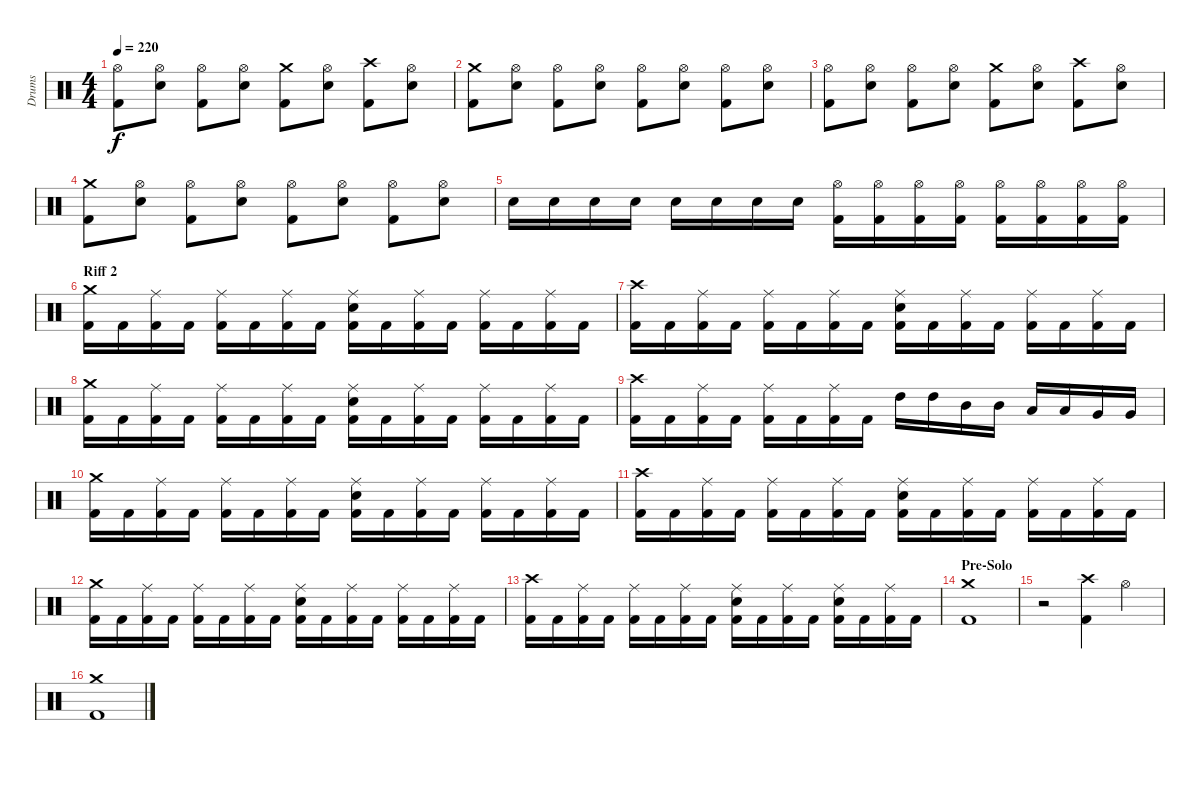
\track ("Drums" "Drums") {instrument percussion}
\staff {score}
\articulation defaults
\ts (4 4)
\tempo 220
\clef neutral
\ks c
("Hi-Hat (open)" "Kick (hit) 2").8{dy f} ("Hi-Hat (open)" "Electric Snare (hit)").8 ("Hi-Hat (open)" "Kick (hit) 2").8 ("Hi-Hat (open)" "Electric Snare (hit)").8 ("Crash medium (hit)" "Kick (hit) 2").8 ("Hi-Hat (open)" "Electric Snare (hit)").8 ("Crash high (hit)" "Kick (hit) 2").8 ("Hi-Hat (open)" "Electric Snare (hit)").8 |
("Crash medium (hit)" "Kick (hit) 2").8 ("Hi-Hat (open)" "Electric Snare (hit)").8 ("Hi-Hat (open)" "Kick (hit) 2").8 ("Hi-Hat (open)" "Electric Snare (hit)").8 ("Hi-Hat (open)" "Kick (hit) 2").8 ("Hi-Hat (open)" "Electric Snare (hit)").8 ("Hi-Hat (open)" "Kick (hit) 2").8 ("Hi-Hat (open)" "Electric Snare (hit)").8 |
("Hi-Hat (open)" "Kick (hit) 2").8 ("Hi-Hat (open)" "Electric Snare (hit)").8 ("Hi-Hat (open)" "Kick (hit) 2").8 ("Hi-Hat (open)" "Electric Snare (hit)").8 ("Crash medium (hit)" "Kick (hit) 2").8 ("Hi-Hat (open)" "Electric Snare (hit)").8 ("Crash high (hit)" "Kick (hit) 2").8 ("Hi-Hat (open)" "Electric Snare (hit)").8 |
("Crash medium (hit)" "Kick (hit) 2").8 ("Hi-Hat (open)" "Electric Snare (hit)").8 ("Hi-Hat (open)" "Kick (hit) 2").8 ("Hi-Hat (open)" "Electric Snare (hit)").8 ("Hi-Hat (open)" "Kick (hit) 2").8 ("Hi-Hat (open)" "Electric Snare (hit)").8 ("Hi-Hat (open)" "Kick (hit) 2").8 ("Hi-Hat (open)" "Electric Snare (hit)").8 |
"Electric Snare (hit)".16 "Electric Snare (hit)".16 "Electric Snare (hit)".16 "Electric Snare (hit)".16 "Electric Snare (hit)".16 "Electric Snare (hit)".16 "Electric Snare (hit)".16 "Electric Snare (hit)".16 ("Hi-Hat (open)" "Kick (hit) 2").16 ("Hi-Hat (open)" "Kick (hit) 2").16 ("Hi-Hat (open)" "Kick (hit) 2").16 ("Hi-Hat (open)" "Kick (hit) 2").16 ("Hi-Hat (open)" "Kick (hit) 2").16 ("Hi-Hat (open)" "Kick (hit) 2").16 ("Hi-Hat (open)" "Kick (hit) 2").16 ("Hi-Hat (open)" "Kick (hit) 2").16 |
\section ("" "Riff 2")
("Crash medium (hit)" "Kick (hit) 2").16 "Kick (hit) 2".16 ("Ride (middle)" "Kick (hit) 2").16 "Kick (hit) 2".16 ("Ride (middle)" "Kick (hit) 2").16 "Kick (hit) 2".16 ("Ride (middle)" "Kick (hit) 2").16 "Kick (hit) 2".16 ("Ride (middle)" "Electric Snare (hit)" "Kick (hit) 2").16 "Kick (hit) 2".16 ("Ride (middle)" "Kick (hit) 2").16 "Kick (hit) 2".16 ("Ride (middle)" "Kick (hit) 2").16 "Kick (hit) 2".16 ("Ride (middle)" "Kick (hit) 2").16 "Kick (hit) 2".16 |
("Crash high (hit)" "Kick (hit) 2").16 "Kick (hit) 2".16 ("Ride (middle)" "Kick (hit) 2").16 "Kick (hit) 2".16 ("Ride (middle)" "Kick (hit) 2").16 "Kick (hit) 2".16 ("Ride (middle)" "Kick (hit) 2").16 "Kick (hit) 2".16 ("Ride (middle)" "Electric Snare (hit)" "Kick (hit) 2").16 "Kick (hit) 2".16 ("Ride (middle)" "Kick (hit) 2").16 "Kick (hit) 2".16 ("Ride (middle)" "Kick (hit) 2").16 "Kick (hit) 2".16 ("Ride (middle)" "Kick (hit) 2").16 "Kick (hit) 2".16 |
("Crash medium (hit)" "Kick (hit) 2").16 "Kick (hit) 2".16 ("Ride (middle)" "Kick (hit) 2").16 "Kick (hit) 2".16 ("Ride (middle)" "Kick (hit) 2").16 "Kick (hit) 2".16 ("Ride (middle)" "Kick (hit) 2").16 "Kick (hit) 2".16 ("Ride (middle)" "Electric Snare (hit)" "Kick (hit) 2").16 "Kick (hit) 2".16 ("Ride (middle)" "Kick (hit) 2").16 "Kick (hit) 2".16 ("Ride (middle)" "Kick (hit) 2").16 "Kick (hit) 2".16 ("Ride (middle)" "Kick (hit) 2").16 "Kick (hit) 2".16 |
("Crash high (hit)" "Kick (hit) 2").16 "Kick (hit) 2".16 ("Ride (middle)" "Kick (hit) 2").16 "Kick (hit) 2".16 ("Ride (middle)" "Kick (hit) 2").16 "Kick (hit) 2".16 ("Ride (middle)" "Kick (hit) 2").16 "Kick (hit) 2".16 "High Tom (hit)".16 "High Tom (hit)".16 "Mid Tom (hit)".16 "Mid Tom (hit)".16 "Low Tom (hit)".16 "Low Tom (hit)".16 "Very Low Tom (hit)".16 "Very Low Tom (hit)".16 |
("Crash medium (hit)" "Kick (hit) 2").16 "Kick (hit) 2".16 ("Ride (middle)" "Kick (hit) 2").16 "Kick (hit) 2".16 ("Ride (middle)" "Kick (hit) 2").16 "Kick (hit) 2".16 ("Ride (middle)" "Kick (hit) 2").16 "Kick (hit) 2".16 ("Ride (middle)" "Electric Snare (hit)" "Kick (hit) 2").16 "Kick (hit) 2".16 ("Ride (middle)" "Kick (hit) 2").16 "Kick (hit) 2".16 ("Ride (middle)" "Kick (hit) 2").16 "Kick (hit) 2".16 ("Ride (middle)" "Kick (hit) 2").16 "Kick (hit) 2".16 |
("Crash high (hit)" "Kick (hit) 2").16 "Kick (hit) 2".16 ("Ride (middle)" "Kick (hit) 2").16 "Kick (hit) 2".16 ("Ride (middle)" "Kick (hit) 2").16 "Kick (hit) 2".16 ("Ride (middle)" "Kick (hit) 2").16 "Kick (hit) 2".16 ("Ride (middle)" "Electric Snare (hit)" "Kick (hit) 2").16 "Kick (hit) 2".16 ("Ride (middle)" "Kick (hit) 2").16 "Kick (hit) 2".16 ("Ride (middle)" "Kick (hit) 2").16 "Kick (hit) 2".16 ("Ride (middle)" "Kick (hit) 2").16 "Kick (hit) 2".16 |
("Crash medium (hit)" "Kick (hit) 2").16 "Kick (hit) 2".16 ("Ride (middle)" "Kick (hit) 2").16 "Kick (hit) 2".16 ("Ride (middle)" "Kick (hit) 2").16 "Kick (hit) 2".16 ("Ride (middle)" "Kick (hit) 2").16 "Kick (hit) 2".16 ("Ride (middle)" "Electric Snare (hit)" "Kick (hit) 2").16 "Kick (hit) 2".16 ("Ride (middle)" "Kick (hit) 2").16 "Kick (hit) 2".16 ("Ride (middle)" "Kick (hit) 2").16 "Kick (hit) 2".16 ("Ride (middle)" "Kick (hit) 2").16 "Kick (hit) 2".16 |
("Crash high (hit)" "Kick (hit) 2").16 "Kick (hit) 2".16 ("Ride (middle)" "Kick (hit) 2").16 "Kick (hit) 2".16 ("Ride (middle)" "Kick (hit) 2").16 "Kick (hit) 2".16 ("Ride (middle)" "Kick (hit) 2").16 "Kick (hit) 2".16 ("Ride (middle)" "Electric Snare (hit)" "Kick (hit) 2").16 "Kick (hit) 2".16 ("Ride (middle)" "Kick (hit) 2").16 "Kick (hit) 2".16 ("Ride (middle)" "Electric Snare (hit)" "Kick (hit) 2").16 "Kick (hit) 2".16 ("Ride (middle)" "Kick (hit) 2").16 "Kick (hit) 2".16 |
\section ("" "Pre-Solo")
("Crash medium (hit)" "Kick (hit) 2").1 |
r.2 ("Crash high (hit)" "Kick (hit) 2").4 "Hi-Hat (open)".4 |
("Crash medium (hit)" "Kick (hit) 2").1
